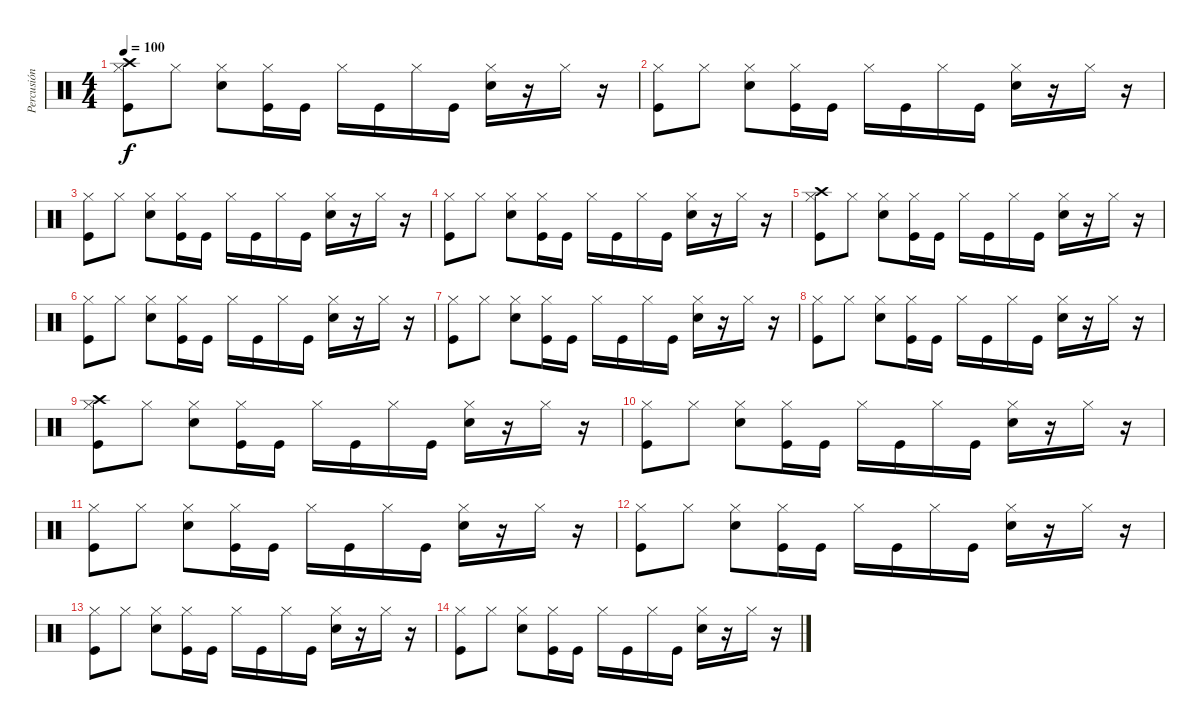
\track ("Percusión" "Percusión") {instrument percussion}
\staff {score}
\articulation defaults
\ts (4 4)
\tempo 100
\clef neutral
\ks c
("Hi-Hat (closed)" "Kick (hit)" "Crash high (hit)").8{dy f} "Hi-Hat (closed)".8 ("Hi-Hat (closed)" "Electric Snare (hit)").8 ("Hi-Hat (closed)" "Kick (hit)").16 "Kick (hit)".16 "Hi-Hat (closed)".16 "Kick (hit)".16 "Hi-Hat (closed)".16 "Kick (hit)".16 ("Hi-Hat (closed)" "Electric Snare (hit)").16 r.16 "Hi-Hat (closed)".16 r.16 |
("Hi-Hat (closed)" "Kick (hit)").8 "Hi-Hat (closed)".8 ("Hi-Hat (closed)" "Electric Snare (hit)").8 ("Hi-Hat (closed)" "Kick (hit)").16 "Kick (hit)".16 "Hi-Hat (closed)".16 "Kick (hit)".16 "Hi-Hat (closed)".16 "Kick (hit)".16 ("Hi-Hat (closed)" "Electric Snare (hit)").16 r.16 "Hi-Hat (closed)".16 r.16 |
("Hi-Hat (closed)" "Kick (hit)").8 "Hi-Hat (closed)".8 ("Hi-Hat (closed)" "Electric Snare (hit)").8 ("Hi-Hat (closed)" "Kick (hit)").16 "Kick (hit)".16 "Hi-Hat (closed)".16 "Kick (hit)".16 "Hi-Hat (closed)".16 "Kick (hit)".16 ("Hi-Hat (closed)" "Electric Snare (hit)").16 r.16 "Hi-Hat (closed)".16 r.16 |
("Hi-Hat (closed)" "Kick (hit)").8 "Hi-Hat (closed)".8 ("Hi-Hat (closed)" "Electric Snare (hit)").8 ("Hi-Hat (closed)" "Kick (hit)").16 "Kick (hit)".16 "Hi-Hat (closed)".16 "Kick (hit)".16 "Hi-Hat (closed)".16 "Kick (hit)".16 ("Hi-Hat (closed)" "Electric Snare (hit)").16 r.16 "Hi-Hat (closed)".16 r.16 |
("Hi-Hat (closed)" "Kick (hit)" "Crash high (hit)").8 "Hi-Hat (closed)".8 ("Hi-Hat (closed)" "Electric Snare (hit)").8 ("Hi-Hat (closed)" "Kick (hit)").16 "Kick (hit)".16 "Hi-Hat (closed)".16 "Kick (hit)".16 "Hi-Hat (closed)".16 "Kick (hit)".16 ("Hi-Hat (closed)" "Electric Snare (hit)").16 r.16 "Hi-Hat (closed)".16 r.16 |
("Hi-Hat (closed)" "Kick (hit)").8 "Hi-Hat (closed)".8 ("Hi-Hat (closed)" "Electric Snare (hit)").8 ("Hi-Hat (closed)" "Kick (hit)").16 "Kick (hit)".16 "Hi-Hat (closed)".16 "Kick (hit)".16 "Hi-Hat (closed)".16 "Kick (hit)".16 ("Hi-Hat (closed)" "Electric Snare (hit)").16 r.16 "Hi-Hat (closed)".16 r.16 |
("Hi-Hat (closed)" "Kick (hit)").8 "Hi-Hat (closed)".8 ("Hi-Hat (closed)" "Electric Snare (hit)").8 ("Hi-Hat (closed)" "Kick (hit)").16 "Kick (hit)".16 "Hi-Hat (closed)".16 "Kick (hit)".16 "Hi-Hat (closed)".16 "Kick (hit)".16 ("Hi-Hat (closed)" "Electric Snare (hit)").16 r.16 "Hi-Hat (closed)".16 r.16 |
("Hi-Hat (closed)" "Kick (hit)").8 "Hi-Hat (closed)".8 ("Hi-Hat (closed)" "Electric Snare (hit)").8 ("Hi-Hat (closed)" "Kick (hit)").16 "Kick (hit)".16 "Hi-Hat (closed)".16 "Kick (hit)".16 "Hi-Hat (closed)".16 "Kick (hit)".16 ("Hi-Hat (closed)" "Electric Snare (hit)").16 r.16 "Hi-Hat (closed)".16 r.16 |
("Hi-Hat (closed)" "Kick (hit)" "Crash high (hit)").8 "Hi-Hat (closed)".8 ("Hi-Hat (closed)" "Electric Snare (hit)").8 ("Hi-Hat (closed)" "Kick (hit)").16 "Kick (hit)".16 "Hi-Hat (closed)".16 "Kick (hit)".16 "Hi-Hat (closed)".16 "Kick (hit)".16 ("Hi-Hat (closed)" "Electric Snare (hit)").16 r.16 "Hi-Hat (closed)".16 r.16 |
("Hi-Hat (closed)" "Kick (hit)").8 "Hi-Hat (closed)".8 ("Hi-Hat (closed)" "Electric Snare (hit)").8 ("Hi-Hat (closed)" "Kick (hit)").16 "Kick (hit)".16 "Hi-Hat (closed)".16 "Kick (hit)".16 "Hi-Hat (closed)".16 "Kick (hit)".16 ("Hi-Hat (closed)" "Electric Snare (hit)").16 r.16 "Hi-Hat (closed)".16 r.16 |
("Hi-Hat (closed)" "Kick (hit)").8 "Hi-Hat (closed)".8 ("Hi-Hat (closed)" "Electric Snare (hit)").8 ("Hi-Hat (closed)" "Kick (hit)").16 "Kick (hit)".16 "Hi-Hat (closed)".16 "Kick (hit)".16 "Hi-Hat (closed)".16 "Kick (hit)".16 ("Hi-Hat (closed)" "Electric Snare (hit)").16 r.16 "Hi-Hat (closed)".16 r.16 |
("Hi-Hat (closed)" "Kick (hit)").8 "Hi-Hat (closed)".8 ("Hi-Hat (closed)" "Electric Snare (hit)").8 ("Hi-Hat (closed)" "Kick (hit)").16 "Kick (hit)".16 "Hi-Hat (closed)".16 "Kick (hit)".16 "Hi-Hat (closed)".16 "Kick (hit)".16 ("Hi-Hat (closed)" "Electric Snare (hit)").16 r.16 "Hi-Hat (closed)".16 r.16 |
("Hi-Hat (closed)" "Kick (hit)").8 "Hi-Hat (closed)".8 ("Hi-Hat (closed)" "Electric Snare (hit)").8 ("Hi-Hat (closed)" "Kick (hit)").16 "Kick (hit)".16 "Hi-Hat (closed)".16 "Kick (hit)".16 "Hi-Hat (closed)".16 "Kick (hit)".16 ("Hi-Hat (closed)" "Electric Snare (hit)").16 r.16 "Hi-Hat (closed)".16 r.16 |
("Hi-Hat (closed)" "Kick (hit)").8 "Hi-Hat (closed)".8 ("Hi-Hat (closed)" "Electric Snare (hit)").8 ("Hi-Hat (closed)" "Kick (hit)").16 "Kick (hit)".16 "Hi-Hat (closed)".16 "Kick (hit)".16 "Hi-Hat (closed)".16 "Kick (hit)".16 ("Hi-Hat (closed)" "Electric Snare (hit)").16 r.16 "Hi-Hat (closed)".16 r.16
